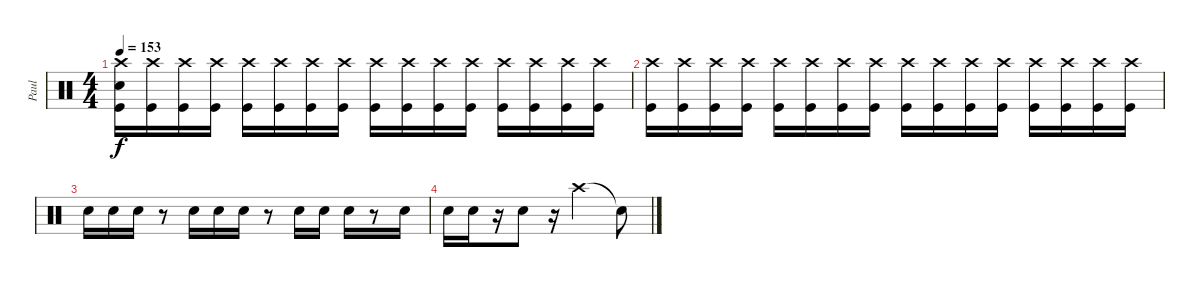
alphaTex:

\track ("Paul" "Paul") {instrument percussion}
\staff {score}
\articulation defaults
\ts (4 4)
\tempo 153
\clef neutral
\ks c
("Kick (hit)" "Electric Snare (hit)" "Crash high (hit)").16{dy f} ("Kick (hit)" "Crash high (hit)").16 ("Kick (hit)" "Crash high (hit)").16 ("Kick (hit)" "Crash high (hit)").16 ("Kick (hit)" "Crash high (hit)").16 ("Kick (hit)" "Crash high (hit)").16 ("Kick (hit)" "Crash high (hit)").16 ("Kick (hit)" "Crash high (hit)").16 ("Kick (hit)" "Crash high (hit)").16 ("Kick (hit)" "Crash high (hit)").16 ("Kick (hit)" "Crash high (hit)").16 ("Kick (hit)" "Crash high (hit)").16 ("Kick (hit)" "Crash high (hit)").16 ("Kick (hit)" "Crash high (hit)").16 ("Kick (hit)" "Crash high (hit)").16 ("Kick (hit)" "Crash high (hit)").16 |
("Kick (hit)" "Crash high (hit)").16 ("Kick (hit)" "Crash high (hit)").16 ("Kick (hit)" "Crash high (hit)").16 ("Kick (hit)" "Crash high (hit)").16 ("Kick (hit)" "Crash high (hit)").16 ("Kick (hit)" "Crash high (hit)").16 ("Kick (hit)" "Crash high (hit)").16 ("Kick (hit)" "Crash high (hit)").16 ("Kick (hit)" "Crash high (hit)").16 ("Kick (hit)" "Crash high (hit)").16 ("Kick (hit)" "Crash high (hit)").16 ("Kick (hit)" "Crash high (hit)").16 ("Kick (hit)" "Crash high (hit)").16 ("Kick (hit)" "Crash high (hit)").16 ("Kick (hit)" "Crash high (hit)").16 ("Kick (hit)" "Crash high (hit)").16 |
"Electric Snare (hit)".16 "Electric Snare (hit)".16 "Electric Snare (hit)".16 r.8 "Electric Snare (hit)".16 "Electric Snare (hit)".16 "Electric Snare (hit)".16 r.8 "Electric Snare (hit)".16 "Electric Snare (hit)".16 "Electric Snare (hit)".16 r.8 "Electric Snare (hit)".16 |
"Electric Snare (hit)".16 "Electric Snare (hit)".16 r.16 "Electric Snare (hit)".8 r.16 "Crash high (hit)".2 "Snare (hit)"{t}.8
